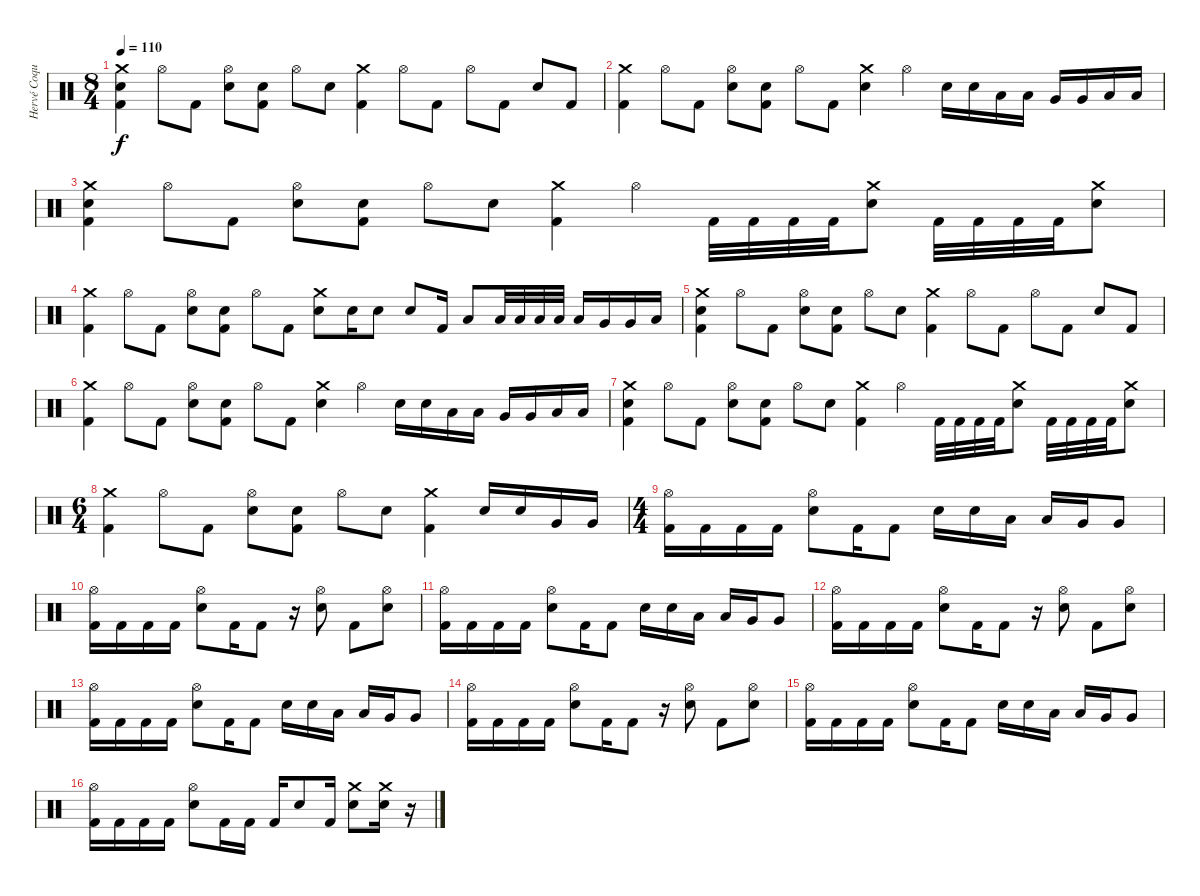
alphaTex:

\track ("Hervé Coquerel" "Hervé Coqu") {instrument percussion}
\staff {score}
\articulation defaults
\ts (8 4)
\tempo 110
\clef neutral
\ks c
("Crash medium (hit)" "Electric Snare (hit)" "Kick (hit) 2").4{dy f} "Hi-Hat (open)".8 "Kick (hit) 2".8 ("Hi-Hat (open)" "Electric Snare (hit)").8 ("Electric Snare (hit)" "Kick (hit) 2").8 "Hi-Hat (open)".8 "Electric Snare (hit)".8 ("Crash medium (hit)" "Kick (hit) 2").4 "Hi-Hat (open)".8 "Kick (hit) 2".8 "Hi-Hat (open)".8 "Kick (hit) 2".8 "Electric Snare (hit)".8 "Kick (hit) 2".8 |
("Crash medium (hit)" "Kick (hit) 2").4 "Hi-Hat (open)".8 "Kick (hit) 2".8 ("Hi-Hat (open)" "Electric Snare (hit)").8 ("Electric Snare (hit)" "Kick (hit) 2").8 "Hi-Hat (open)".8 "Kick (hit) 2".8 ("Crash medium (hit)" "Electric Snare (hit)").4 "Hi-Hat (open)".4 "Electric Snare (hit)".16 "Electric Snare (hit)".16 "Low Tom (hit)".16 "Low Tom (hit)".16 "Very Low Tom (hit)".16 "Very Low Tom (hit)".16 "Low Floor Tom (hit)".16 "Low Floor Tom (hit)".16 |
("Crash medium (hit)" "Electric Snare (hit)" "Kick (hit) 2").4 "Hi-Hat (open)".8 "Kick (hit) 2".8 ("Hi-Hat (open)" "Electric Snare (hit)").8 ("Electric Snare (hit)" "Kick (hit) 2").8 "Hi-Hat (open)".8 "Electric Snare (hit)".8 ("Crash medium (hit)" "Kick (hit) 2").4 "Hi-Hat (open)".4 "Kick (hit) 2".32 "Kick (hit) 2".32 "Kick (hit) 2".32 "Kick (hit) 2".32 ("Crash medium (hit)" "Electric Snare (hit)").8 "Kick (hit) 2".32 "Kick (hit) 2".32 "Kick (hit) 2".32 "Kick (hit) 2".32 ("Crash medium (hit)" "Electric Snare (hit)").8 |
("Crash medium (hit)" "Kick (hit) 2").4 "Hi-Hat (open)".8 "Kick (hit) 2".8 ("Hi-Hat (open)" "Electric Snare (hit)").8 ("Electric Snare (hit)" "Kick (hit) 2").8 "Hi-Hat (open)".8 "Kick (hit) 2".8 ("Crash medium (hit)" "Electric Snare (hit)").8 "Electric Snare (hit)".16 "Electric Snare (hit)".8 "Electric Snare (hit)".8 "Kick (hit) 2".16 "Low Tom (hit)".8 "Low Tom (hit)".32 "Low Tom (hit)".32 "Low Tom (hit)".32 "Low Tom (hit)".32 "Low Tom (hit)".16 "Very Low Tom (hit)".16 "Very Low Tom (hit)".16 "Low Floor Tom (hit)".16 |
("Crash medium (hit)" "Electric Snare (hit)" "Kick (hit) 2").4 "Hi-Hat (open)".8 "Kick (hit) 2".8 ("Hi-Hat (open)" "Electric Snare (hit)").8 ("Electric Snare (hit)" "Kick (hit) 2").8 "Hi-Hat (open)".8 "Electric Snare (hit)".8 ("Crash medium (hit)" "Kick (hit) 2").4 "Hi-Hat (open)".8 "Kick (hit) 2".8 "Hi-Hat (open)".8 "Kick (hit) 2".8 "Electric Snare (hit)".8 "Kick (hit) 2".8 |
("Crash medium (hit)" "Kick (hit) 2").4 "Hi-Hat (open)".8 "Kick (hit) 2".8 ("Hi-Hat (open)" "Electric Snare (hit)").8 ("Electric Snare (hit)" "Kick (hit) 2").8 "Hi-Hat (open)".8 "Kick (hit) 2".8 ("Crash medium (hit)" "Electric Snare (hit)").4 "Hi-Hat (open)".4 "Electric Snare (hit)".16 "Electric Snare (hit)".16 "Low Tom (hit)".16 "Low Tom (hit)".16 "Very Low Tom (hit)".16 "Very Low Tom (hit)".16 "Low Floor Tom (hit)".16 "Low Floor Tom (hit)".16 |
("Crash medium (hit)" "Electric Snare (hit)" "Kick (hit) 2").4 "Hi-Hat (open)".8 "Kick (hit) 2".8 ("Hi-Hat (open)" "Electric Snare (hit)").8 ("Electric Snare (hit)" "Kick (hit) 2").8 "Hi-Hat (open)".8 "Electric Snare (hit)".8 ("Crash medium (hit)" "Kick (hit) 2").4 "Hi-Hat (open)".4 "Kick (hit) 2".32 "Kick (hit) 2".32 "Kick (hit) 2".32 "Kick (hit) 2".32 ("Crash medium (hit)" "Electric Snare (hit)").8 "Kick (hit) 2".32 "Kick (hit) 2".32 "Kick (hit) 2".32 "Kick (hit) 2".32 ("Crash medium (hit)" "Electric Snare (hit)").8 |
\ts (6 4)
("Crash medium (hit)" "Kick (hit) 2").4 "Hi-Hat (open)".8 "Kick (hit) 2".8 ("Hi-Hat (open)" "Electric Snare (hit)").8 ("Electric Snare (hit)" "Kick (hit) 2").8 "Hi-Hat (open)".8 "Electric Snare (hit)".8 ("Crash medium (hit)" "Kick (hit) 2").4 "Electric Snare (hit)".16 "Electric Snare (hit)".16 "Very Low Tom (hit)".16 "Very Low Tom (hit)".16 |
\ts (4 4)
("Hi-Hat (open)" "Kick (hit) 2").16 "Kick (hit) 2".16 "Kick (hit) 2".16 "Kick (hit) 2".16 ("Hi-Hat (open)" "Electric Snare (hit)").8 "Kick (hit) 2".16 "Kick (hit) 2".8 "Electric Snare (hit)".16 "Electric Snare (hit)".16 "Low Tom (hit)".16 "Low Tom (hit)".16 "Very Low Tom (hit)".16 "Very Low Tom (hit)".8 |
("Hi-Hat (open)" "Kick (hit) 2").16 "Kick (hit) 2".16 "Kick (hit) 2".16 "Kick (hit) 2".16 ("Hi-Hat (open)" "Electric Snare (hit)").8 "Kick (hit) 2".16 "Kick (hit) 2".8 r.16 ("Hi-Hat (open)" "Electric Snare (hit)").8 "Kick (hit) 2".8 ("Hi-Hat (open)" "Electric Snare (hit)").8 |
("Hi-Hat (open)" "Kick (hit) 2").16 "Kick (hit) 2".16 "Kick (hit) 2".16 "Kick (hit) 2".16 ("Hi-Hat (open)" "Electric Snare (hit)").8 "Kick (hit) 2".16 "Kick (hit) 2".8 "Electric Snare (hit)".16 "Electric Snare (hit)".16 "Low Tom (hit)".16 "Low Tom (hit)".16 "Very Low Tom (hit)".16 "Very Low Tom (hit)".8 |
("Hi-Hat (open)" "Kick (hit) 2").16 "Kick (hit) 2".16 "Kick (hit) 2".16 "Kick (hit) 2".16 ("Hi-Hat (open)" "Electric Snare (hit)").8 "Kick (hit) 2".16 "Kick (hit) 2".8 r.16 ("Hi-Hat (open)" "Electric Snare (hit)").8 "Kick (hit) 2".8 ("Hi-Hat (open)" "Electric Snare (hit)").8 |
("Hi-Hat (open)" "Kick (hit) 2").16 "Kick (hit) 2".16 "Kick (hit) 2".16 "Kick (hit) 2".16 ("Hi-Hat (open)" "Electric Snare (hit)").8 "Kick (hit) 2".16 "Kick (hit) 2".8 "Electric Snare (hit)".16 "Electric Snare (hit)".16 "Low Tom (hit)".16 "Low Tom (hit)".16 "Very Low Tom (hit)".16 "Very Low Tom (hit)".8 |
("Hi-Hat (open)" "Kick (hit) 2").16 "Kick (hit) 2".16 "Kick (hit) 2".16 "Kick (hit) 2".16 ("Hi-Hat (open)" "Electric Snare (hit)").8 "Kick (hit) 2".16 "Kick (hit) 2".8 r.16 ("Hi-Hat (open)" "Electric Snare (hit)").8 "Kick (hit) 2".8 ("Hi-Hat (open)" "Electric Snare (hit)").8 |
("Hi-Hat (open)" "Kick (hit) 2").16 "Kick (hit) 2".16 "Kick (hit) 2".16 "Kick (hit) 2".16 ("Hi-Hat (open)" "Electric Snare (hit)").8 "Kick (hit) 2".16 "Kick (hit) 2".8 "Electric Snare (hit)".16 "Electric Snare (hit)".16 "Low Tom (hit)".16 "Low Tom (hit)".16 "Very Low Tom (hit)".16 "Very Low Tom (hit)".8 |
("Hi-Hat (open)" "Kick (hit) 2").16 "Kick (hit) 2".16 "Kick (hit) 2".16 "Kick (hit) 2".16 ("Hi-Hat (open)" "Electric Snare (hit)").8 "Kick (hit) 2".16 "Kick (hit) 2".16 "Kick (hit) 2".16 "Electric Snare (hit)".8 "Kick (hit) 2".16 ("Crash medium (hit)" "Electric Snare (hit)").8 ("Crash medium (hit)" "Electric Snare (hit)").16 r.16
